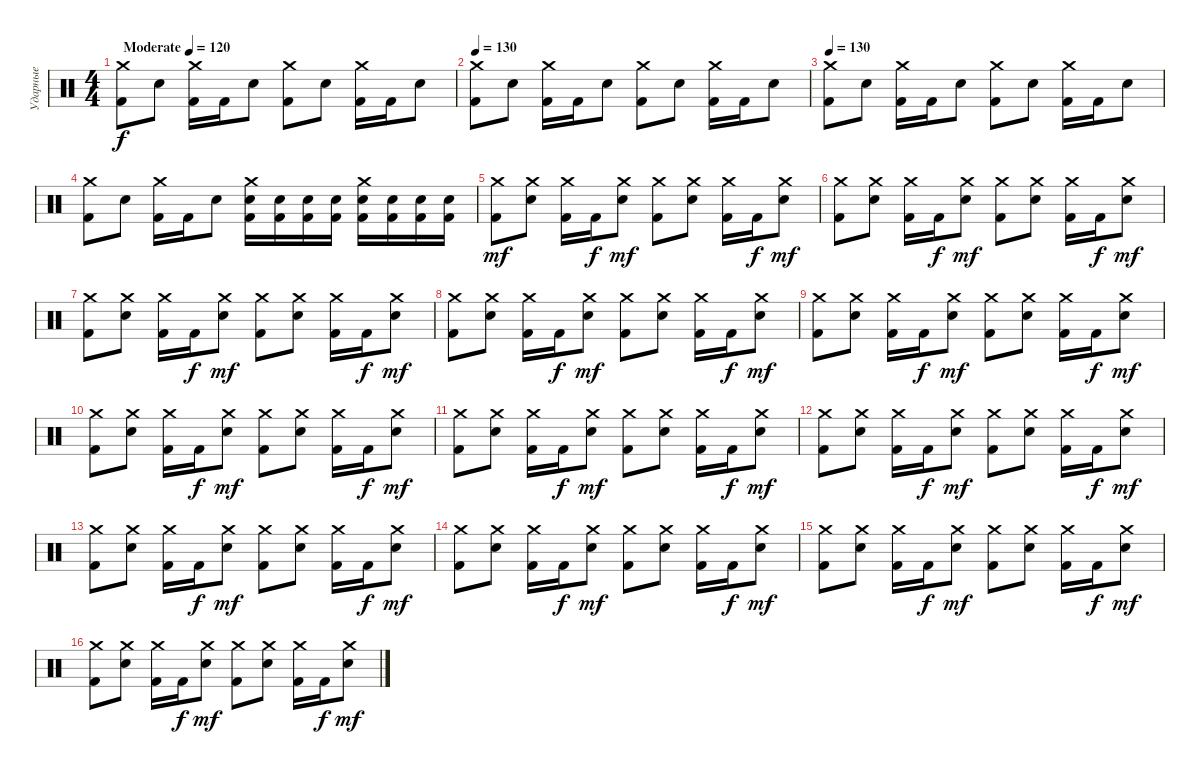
\track ("Ударные" "Ударные") {instrument percussion}
\staff {score}
\articulation defaults
\ts (4 4)
\tempo (120 "Moderate")
\tempo 130
\tempo (120 "Moderate")
\clef neutral
\ks c
("Crash medium (hit)" "Kick (hit) 2").8{dy f} "Electric Snare (hit)".8 ("Crash medium (hit)" "Kick (hit) 2").16 "Kick (hit) 2".16 "Electric Snare (hit)".8 ("Crash medium (hit)" "Kick (hit) 2").8 "Electric Snare (hit)".8 ("Crash medium (hit)" "Kick (hit) 2").16 "Kick (hit) 2".16 "Electric Snare (hit)".8 |
\tempo 130
("Crash medium (hit)" "Kick (hit) 2").8 "Electric Snare (hit)".8 ("Crash medium (hit)" "Kick (hit) 2").16 "Kick (hit) 2".16 "Electric Snare (hit)".8 ("Crash medium (hit)" "Kick (hit) 2").8 "Electric Snare (hit)".8 ("Crash medium (hit)" "Kick (hit) 2").16 "Kick (hit) 2".16 "Electric Snare (hit)".8 |
\tempo 130
("Crash medium (hit)" "Kick (hit) 2").8 "Electric Snare (hit)".8 ("Crash medium (hit)" "Kick (hit) 2").16 "Kick (hit) 2".16 "Electric Snare (hit)".8 ("Crash medium (hit)" "Kick (hit) 2").8 "Electric Snare (hit)".8 ("Crash medium (hit)" "Kick (hit) 2").16 "Kick (hit) 2".16 "Electric Snare (hit)".8 |
("Crash medium (hit)" "Kick (hit) 2").8 "Electric Snare (hit)".8 ("Crash medium (hit)" "Kick (hit) 2").16 "Kick (hit) 2".16 "Electric Snare (hit)".8 ("Crash medium (hit)" "Electric Snare (hit)" "Kick (hit) 2").16 ("Electric Snare (hit)" "Kick (hit) 2").16 ("Electric Snare (hit)" "Kick (hit) 2").16 ("Electric Snare (hit)" "Kick (hit) 2").16 ("Crash medium (hit)" "Electric Snare (hit)" "Kick (hit) 2").16 ("Electric Snare (hit)" "Kick (hit) 2").16 ("Electric Snare (hit)" "Kick (hit) 2").16 ("Electric Snare (hit)" "Kick (hit) 2").16 |
("Kick (hit) 2" "Crash medium (hit)").8{dy mf} ("Electric Snare (hit)" "Crash medium (hit)").8 ("Kick (hit) 2" "Crash medium (hit)").16 "Kick (hit) 2".16{dy f} ("Electric Snare (hit)" "Crash medium (hit)").8{dy mf} ("Kick (hit) 2" "Crash medium (hit)").8 ("Electric Snare (hit)" "Crash medium (hit)").8 ("Kick (hit) 2" "Crash medium (hit)").16 "Kick (hit) 2".16{dy f} ("Electric Snare (hit)" "Crash medium (hit)").8{dy mf} |
("Kick (hit) 2" "Crash medium (hit)").8 ("Electric Snare (hit)" "Crash medium (hit)").8 ("Kick (hit) 2" "Crash medium (hit)").16 "Kick (hit) 2".16{dy f} ("Electric Snare (hit)" "Crash medium (hit)").8{dy mf} ("Kick (hit) 2" "Crash medium (hit)").8 ("Electric Snare (hit)" "Crash medium (hit)").8 ("Kick (hit) 2" "Crash medium (hit)").16 "Kick (hit) 2".16{dy f} ("Electric Snare (hit)" "Crash medium (hit)").8{dy mf} |
("Kick (hit) 2" "Crash medium (hit)").8 ("Electric Snare (hit)" "Crash medium (hit)").8 ("Kick (hit) 2" "Crash medium (hit)").16 "Kick (hit) 2".16{dy f} ("Electric Snare (hit)" "Crash medium (hit)").8{dy mf} ("Kick (hit) 2" "Crash medium (hit)").8 ("Electric Snare (hit)" "Crash medium (hit)").8 ("Kick (hit) 2" "Crash medium (hit)").16 "Kick (hit) 2".16{dy f} ("Electric Snare (hit)" "Crash medium (hit)").8{dy mf} |
("Kick (hit) 2" "Crash medium (hit)").8 ("Electric Snare (hit)" "Crash medium (hit)").8 ("Kick (hit) 2" "Crash medium (hit)").16 "Kick (hit) 2".16{dy f} ("Electric Snare (hit)" "Crash medium (hit)").8{dy mf} ("Kick (hit) 2" "Crash medium (hit)").8 ("Electric Snare (hit)" "Crash medium (hit)").8 ("Kick (hit) 2" "Crash medium (hit)").16 "Kick (hit) 2".16{dy f} ("Electric Snare (hit)" "Crash medium (hit)").8{dy mf} |
("Kick (hit) 2" "Crash medium (hit)").8 ("Electric Snare (hit)" "Crash medium (hit)").8 ("Kick (hit) 2" "Crash medium (hit)").16 "Kick (hit) 2".16{dy f} ("Electric Snare (hit)" "Crash medium (hit)").8{dy mf} ("Kick (hit) 2" "Crash medium (hit)").8 ("Electric Snare (hit)" "Crash medium (hit)").8 ("Kick (hit) 2" "Crash medium (hit)").16 "Kick (hit) 2".16{dy f} ("Electric Snare (hit)" "Crash medium (hit)").8{dy mf} |
("Kick (hit) 2" "Crash medium (hit)").8 ("Electric Snare (hit)" "Crash medium (hit)").8 ("Kick (hit) 2" "Crash medium (hit)").16 "Kick (hit) 2".16{dy f} ("Electric Snare (hit)" "Crash medium (hit)").8{dy mf} ("Kick (hit) 2" "Crash medium (hit)").8 ("Electric Snare (hit)" "Crash medium (hit)").8 ("Kick (hit) 2" "Crash medium (hit)").16 "Kick (hit) 2".16{dy f} ("Electric Snare (hit)" "Crash medium (hit)").8{dy mf} |
("Kick (hit) 2" "Crash medium (hit)").8 ("Electric Snare (hit)" "Crash medium (hit)").8 ("Kick (hit) 2" "Crash medium (hit)").16 "Kick (hit) 2".16{dy f} ("Electric Snare (hit)" "Crash medium (hit)").8{dy mf} ("Kick (hit) 2" "Crash medium (hit)").8 ("Electric Snare (hit)" "Crash medium (hit)").8 ("Kick (hit) 2" "Crash medium (hit)").16 "Kick (hit) 2".16{dy f} ("Electric Snare (hit)" "Crash medium (hit)").8{dy mf} |
("Kick (hit) 2" "Crash medium (hit)").8 ("Electric Snare (hit)" "Crash medium (hit)").8 ("Kick (hit) 2" "Crash medium (hit)").16 "Kick (hit) 2".16{dy f} ("Electric Snare (hit)" "Crash medium (hit)").8{dy mf} ("Kick (hit) 2" "Crash medium (hit)").8 ("Electric Snare (hit)" "Crash medium (hit)").8 ("Kick (hit) 2" "Crash medium (hit)").16 "Kick (hit) 2".16{dy f} ("Electric Snare (hit)" "Crash medium (hit)").8{dy mf} |
("Kick (hit) 2" "Crash medium (hit)").8 ("Electric Snare (hit)" "Crash medium (hit)").8 ("Kick (hit) 2" "Crash medium (hit)").16 "Kick (hit) 2".16{dy f} ("Electric Snare (hit)" "Crash medium (hit)").8{dy mf} ("Kick (hit) 2" "Crash medium (hit)").8 ("Electric Snare (hit)" "Crash medium (hit)").8 ("Kick (hit) 2" "Crash medium (hit)").16 "Kick (hit) 2".16{dy f} ("Electric Snare (hit)" "Crash medium (hit)").8{dy mf} |
("Kick (hit) 2" "Crash medium (hit)").8 ("Electric Snare (hit)" "Crash medium (hit)").8 ("Kick (hit) 2" "Crash medium (hit)").16 "Kick (hit) 2".16{dy f} ("Electric Snare (hit)" "Crash medium (hit)").8{dy mf} ("Kick (hit) 2" "Crash medium (hit)").8 ("Electric Snare (hit)" "Crash medium (hit)").8 ("Kick (hit) 2" "Crash medium (hit)").16 "Kick (hit) 2".16{dy f} ("Electric Snare (hit)" "Crash medium (hit)").8{dy mf} |
("Kick (hit) 2" "Crash medium (hit)").8 ("Electric Snare (hit)" "Crash medium (hit)").8 ("Kick (hit) 2" "Crash medium (hit)").16 "Kick (hit) 2".16{dy f} ("Electric Snare (hit)" "Crash medium (hit)").8{dy mf} ("Kick (hit) 2" "Crash medium (hit)").8 ("Electric Snare (hit)" "Crash medium (hit)").8 ("Kick (hit) 2" "Crash medium (hit)").16 "Kick (hit) 2".16{dy f} ("Electric Snare (hit)" "Crash medium (hit)").8{dy mf} |
("Kick (hit) 2" "Crash medium (hit)").8 ("Electric Snare (hit)" "Crash medium (hit)").8 ("Kick (hit) 2" "Crash medium (hit)").16 "Kick (hit) 2".16{dy f} ("Electric Snare (hit)" "Crash medium (hit)").8{dy mf} ("Kick (hit) 2" "Crash medium (hit)").8 ("Electric Snare (hit)" "Crash medium (hit)").8 ("Kick (hit) 2" "Crash medium (hit)").16 "Kick (hit) 2".16{dy f} ("Electric Snare (hit)" "Crash medium (hit)").8{dy mf}
